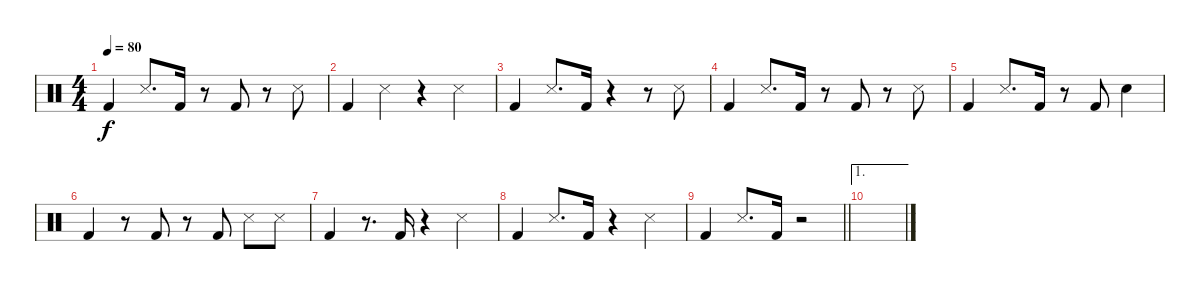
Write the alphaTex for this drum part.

\track "" {instrument percussion}
\staff {score}
\articulation defaults
\ts (4 4)
\tempo 80
\clef neutral
\ks c "Kick (hit) 2".4{dy f} "Metronome (hit)".8{d} "Kick (hit) 2".16
r.8 "Kick (hit) 2".8 r.8 "Metronome (hit)".8 |
"Kick (hit) 2".4 "Metronome (hit)".4 r.4 "Metronome (hit)".4 |
"Kick (hit) 2".4 "Metronome (hit)".8{d} "Kick (hit) 2".16 r.4 r.8 "Metronome (hit)".8 |
"Kick (hit) 2".4 "Metronome (hit)".8{d} "Kick (hit) 2".16 r.8 "Kick (hit) 2".8 r.8 "Metronome (hit)".8 |
"Kick (hit) 2".4 "Metronome (hit)".8{d} "Kick (hit) 2".16 r.8 "Kick (hit) 2".8 "Electric Snare (hit)".4 |
"Kick (hit) 2".4 r.8 "Kick (hit) 2".8 r.8 "Kick (hit) 2".8 "Metronome (hit)".8 "Metronome (hit)".8 |
"Kick (hit) 2".4 r.8{d} "Kick (hit) 2".16 r.4 "Metronome (hit)".4 |
"Kick (hit) 2".4 "Metronome (hit)".8{d} "Kick (hit) 2".16 r.4 "Metronome (hit)".4 |
\barLineRight lightlight "Kick (hit) 2".4 "Metronome (hit)".8{d} "Kick (hit) 2".16
r.2 |
\ae 1
